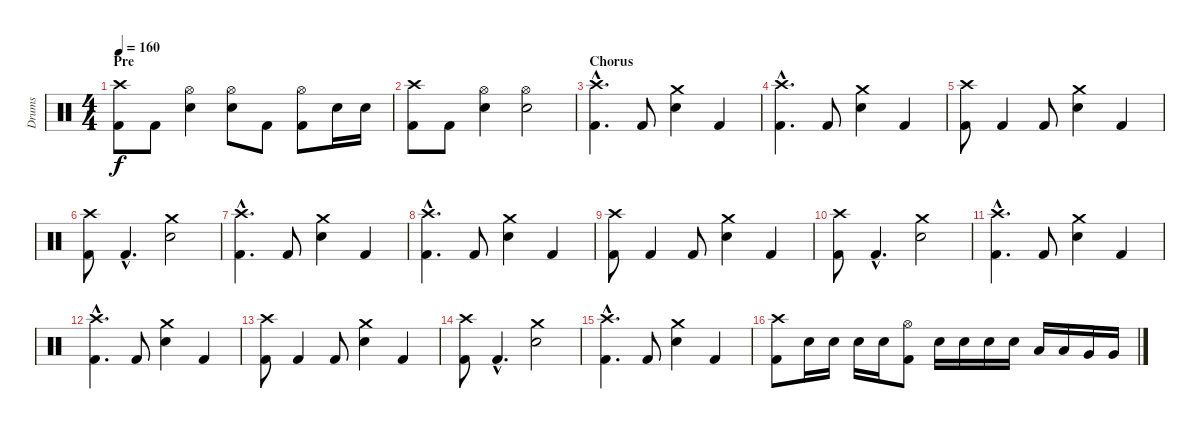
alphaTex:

\track ("Drums" "Drums") {instrument percussion}
\staff {score}
\articulation defaults
\ts (4 4)
\section ("" "Pre")
\tempo 160
\clef neutral
\ks c
("Kick (hit) 2" "Crash high (hit)").8{dy f} "Kick (hit) 2".8 ("Electric Snare (hit)" "Hi-Hat (open)").4 ("Electric Snare (hit)" "Hi-Hat (open)").8 "Kick (hit) 2".8 ("Kick (hit) 2" "Hi-Hat (open)").8 "Electric Snare (hit)".16 "Electric Snare (hit)".16 |
("Kick (hit) 2" "Crash high (hit)").8 "Kick (hit) 2".8 ("Electric Snare (hit)" "Hi-Hat (open)").4 ("Electric Snare (hit)" "Hi-Hat (open)").2 |
\section ("" "Chorus")
("Kick (hit) 2"{hac} "Crash high (hit)"{hac}).4{d} "Kick (hit) 2".8 ("Electric Snare (hit)" "Crash medium (hit)").4 "Kick (hit) 2".4 |
("Kick (hit) 2"{hac} "Crash high (hit)"{hac}).4{d} "Kick (hit) 2".8 ("Electric Snare (hit)" "Crash medium (hit)").4 "Kick (hit) 2".4 |
("Kick (hit) 2" "Crash high (hit)").8 "Kick (hit) 2".4 "Kick (hit) 2".8 ("Electric Snare (hit)" "Crash medium (hit)").4 "Kick (hit) 2".4 |
("Kick (hit) 2" "Crash high (hit)").8 "Kick (hit) 2"{hac}.4{d} ("Electric Snare (hit)" "Crash medium (hit)").2 |
("Kick (hit) 2"{hac} "Crash high (hit)"{hac}).4{d} "Kick (hit) 2".8 ("Electric Snare (hit)" "Crash medium (hit)").4 "Kick (hit) 2".4 |
("Kick (hit) 2"{hac} "Crash high (hit)"{hac}).4{d} "Kick (hit) 2".8 ("Electric Snare (hit)" "Crash medium (hit)").4 "Kick (hit) 2".4 |
("Kick (hit) 2" "Crash high (hit)").8 "Kick (hit) 2".4 "Kick (hit) 2".8 ("Electric Snare (hit)" "Crash medium (hit)").4 "Kick (hit) 2".4 |
("Kick (hit) 2" "Crash high (hit)").8 "Kick (hit) 2"{hac}.4{d} ("Electric Snare (hit)" "Crash medium (hit)").2 |
("Kick (hit) 2"{hac} "Crash high (hit)"{hac}).4{d} "Kick (hit) 2".8 ("Electric Snare (hit)" "Crash medium (hit)").4 "Kick (hit) 2".4 |
("Kick (hit) 2"{hac} "Crash high (hit)"{hac}).4{d} "Kick (hit) 2".8 ("Electric Snare (hit)" "Crash medium (hit)").4 "Kick (hit) 2".4 |
("Kick (hit) 2" "Crash high (hit)").8 "Kick (hit) 2".4 "Kick (hit) 2".8 ("Electric Snare (hit)" "Crash medium (hit)").4 "Kick (hit) 2".4 |
("Kick (hit) 2" "Crash high (hit)").8 "Kick (hit) 2"{hac}.4{d} ("Electric Snare (hit)" "Crash medium (hit)").2 |
("Kick (hit) 2"{hac} "Crash high (hit)"{hac}).4{d} "Kick (hit) 2".8 ("Electric Snare (hit)" "Crash medium (hit)").4 "Kick (hit) 2".4 |
("Kick (hit) 2" "Crash high (hit)").8 "Electric Snare (hit)".16 "Electric Snare (hit)".16 "Electric Snare (hit)".16 "Electric Snare (hit)".16 ("Kick (hit) 2" "Hi-Hat (open)").8 "Electric Snare (hit)".16 "Electric Snare (hit)".16 "Electric Snare (hit)".16 "Electric Snare (hit)".16 "Low Tom (hit)".16 "Low Tom (hit)".16 "Very Low Tom (hit)".16 "Very Low Tom (hit)".16
